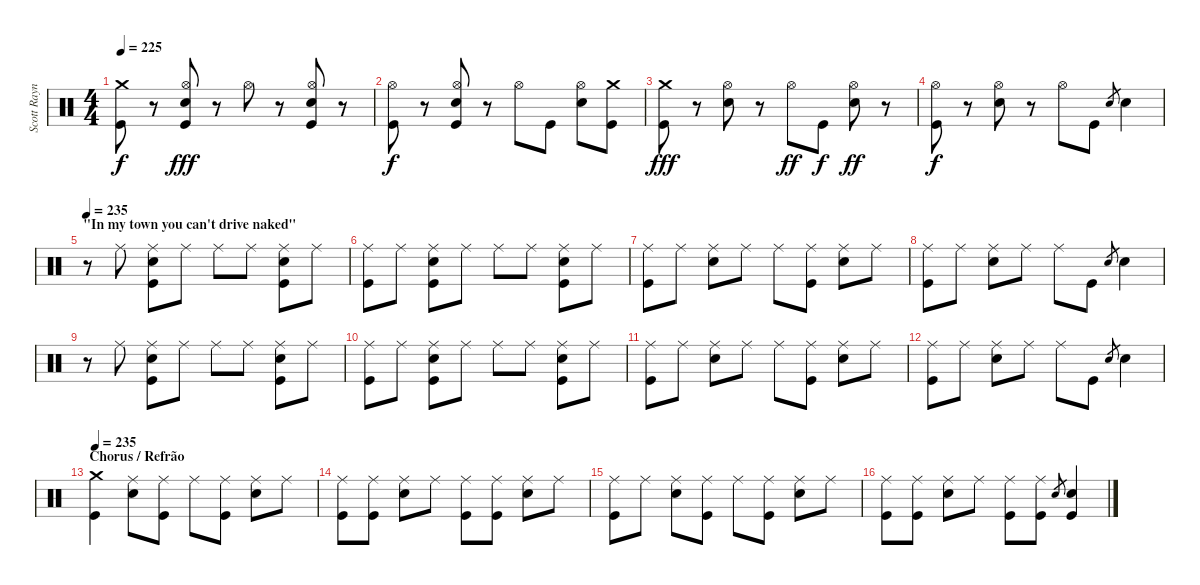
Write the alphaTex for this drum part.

\track ("Scott Raynor - Drums/Bateria" "Scott Rayn") {instrument percussion}
\staff {score}
\articulation defaults
\ts (4 4)
\tempo 225
\clef neutral
\ks c
("Crash medium (hit)" "Kick (hit)").8{dy f} r.8 ("Hi-Hat (open)" "Electric Snare (hit)" "Kick (hit)").8{dy fff} r.8 "Hi-Hat (open)".8 r.8 ("Hi-Hat (open)" "Electric Snare (hit)" "Kick (hit)").8 r.8 |
("Hi-Hat (open)" "Kick (hit)").8{dy f} r.8 ("Hi-Hat (open)" "Electric Snare (hit)" "Kick (hit)").8 r.8 "Hi-Hat (open)".8 "Kick (hit)".8 ("Hi-Hat (open)" "Electric Snare (hit)").8 ("Crash medium (hit)" "Kick (hit)").8 |
("Crash medium (hit)" "Kick (hit)").8{dy fff} r.8 ("Hi-Hat (open)" "Electric Snare (hit)").8 r.8 "Hi-Hat (open)".8{dy ff} "Kick (hit)".8{dy f} ("Hi-Hat (open)" "Electric Snare (hit)").8{dy ff} r.8 |
("Hi-Hat (open)" "Kick (hit)").8{dy f} r.8 ("Hi-Hat (open)" "Electric Snare (hit)").8 r.8 "Hi-Hat (open)".8 "Kick (hit)".8 "Electric Snare (hit)".8{gr} "Electric Snare (hit)".4 |
\section ("" "\"In my town you can't drive naked\"")
\tempo 235
r.8 "Ride (middle)".8 ("Ride (middle)" "Electric Snare (hit)" "Kick (hit)").8 "Ride (middle)".8 "Ride (middle)".8 "Ride (middle)".8 ("Ride (middle)" "Electric Snare (hit)" "Kick (hit)").8 "Ride (middle)".8 |
("Ride (middle)" "Kick (hit)").8 "Ride (middle)".8 ("Ride (middle)" "Electric Snare (hit)" "Kick (hit)").8 "Ride (middle)".8 "Ride (middle)".8 "Ride (middle)".8 ("Ride (middle)" "Electric Snare (hit)" "Kick (hit)").8 "Ride (middle)".8 |
("Ride (middle)" "Kick (hit)").8 "Ride (middle)".8 ("Ride (middle)" "Electric Snare (hit)").8 "Ride (middle)".8 "Ride (middle)".8 ("Ride (middle)" "Kick (hit)").8 ("Ride (middle)" "Electric Snare (hit)").8 "Ride (middle)".8 |
("Ride (middle)" "Kick (hit)").8 "Ride (middle)".8 ("Ride (middle)" "Electric Snare (hit)").8 "Ride (middle)".8 "Ride (middle)".8 "Kick (hit)".8 "Electric Snare (hit)".8{gr} "Electric Snare (hit)".4 |
r.8 "Ride (middle)".8 ("Ride (middle)" "Electric Snare (hit)" "Kick (hit)").8 "Ride (middle)".8 "Ride (middle)".8 "Ride (middle)".8 ("Ride (middle)" "Electric Snare (hit)" "Kick (hit)").8 "Ride (middle)".8 |
("Ride (middle)" "Kick (hit)").8 "Ride (middle)".8 ("Ride (middle)" "Electric Snare (hit)" "Kick (hit)").8 "Ride (middle)".8 "Ride (middle)".8 "Ride (middle)".8 ("Ride (middle)" "Electric Snare (hit)" "Kick (hit)").8 "Ride (middle)".8 |
("Ride (middle)" "Kick (hit)").8 "Ride (middle)".8 ("Ride (middle)" "Electric Snare (hit)").8 "Ride (middle)".8 "Ride (middle)".8 ("Ride (middle)" "Kick (hit)").8 ("Ride (middle)" "Electric Snare (hit)").8 "Ride (middle)".8 |
("Ride (middle)" "Kick (hit)").8 "Ride (middle)".8 ("Ride (middle)" "Electric Snare (hit)").8 "Ride (middle)".8 "Ride (middle)".8 "Kick (hit)".8 "Electric Snare (hit)".8{gr} "Electric Snare (hit)".4 |
\section ("" "Chorus / Refrão")
\tempo 235
("Crash medium (hit)" "Kick (hit)").4 ("Ride (middle)" "Electric Snare (hit)").8 ("Ride (middle)" "Kick (hit)").8 "Ride (middle)".8 ("Ride (middle)" "Kick (hit)").8 ("Ride (middle)" "Electric Snare (hit)").8 "Ride (middle)".8 |
("Ride (middle)" "Kick (hit)").8 ("Ride (middle)" "Kick (hit)").8 ("Ride (middle)" "Electric Snare (hit)").8 "Ride (middle)".8 ("Ride (middle)" "Kick (hit)").8 ("Ride (middle)" "Kick (hit)").8 ("Ride (middle)" "Electric Snare (hit)").8 "Ride (middle)".8 |
("Ride (middle)" "Kick (hit)").8 "Ride (middle)".8 ("Ride (middle)" "Electric Snare (hit)").8 ("Ride (middle)" "Kick (hit)").8 "Ride (middle)".8 ("Ride (middle)" "Kick (hit)").8 ("Ride (middle)" "Electric Snare (hit)").8 "Ride (middle)".8 |
("Ride (middle)" "Kick (hit)").8 ("Ride (middle)" "Kick (hit)").8 ("Ride (middle)" "Electric Snare (hit)").8 "Ride (middle)".8 ("Ride (middle)" "Kick (hit)").8 ("Ride (middle)" "Kick (hit)").8 "Electric Snare (hit)".8{gr} ("Electric Snare (hit)" "Kick (hit)").4
